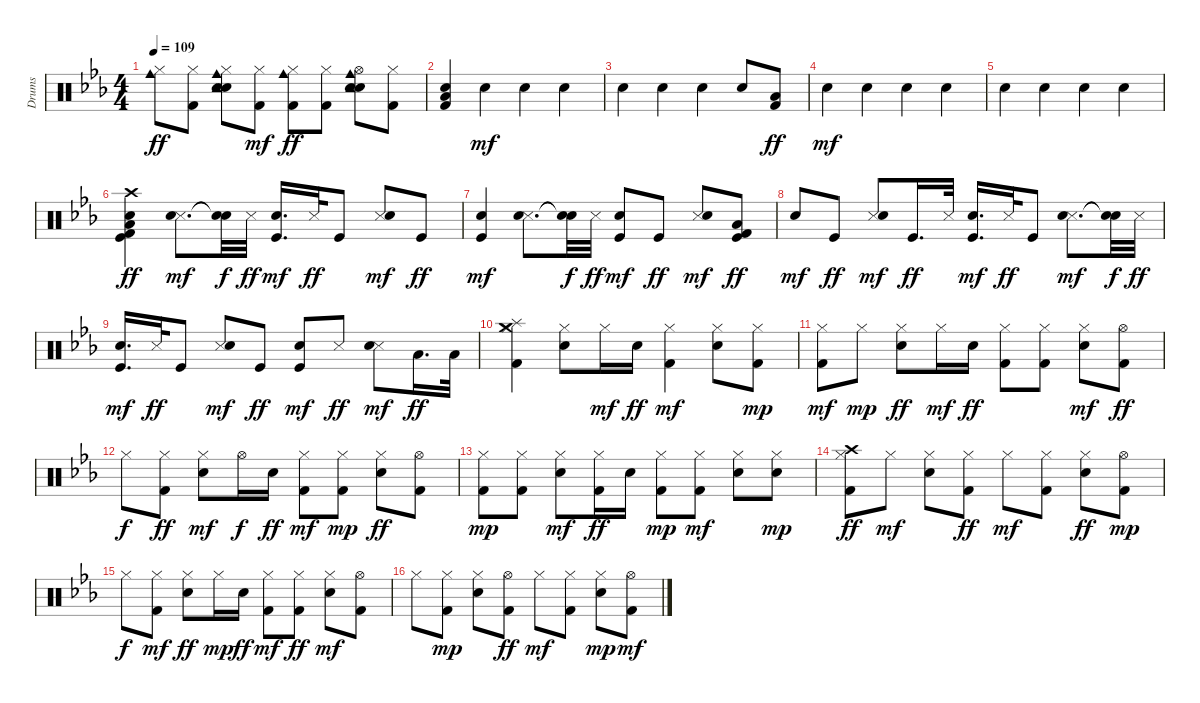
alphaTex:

\track ("Drums" "Drums") {instrument percussion}
\staff {score}
\articulation defaults
\ts (4 4)
\tempo 109
\clef neutral
\ks eb
("Hi-Hat (closed)" "Cowbell medium (hit)").8{dy ff} ("Kick (hit) 2" "Hi-Hat (closed)").8 ("Hand Clap (hit)" "Electric Snare (hit)" "Hi-Hat (closed)" "Tambourine (hit)" "Cowbell medium (hit)").8 ("Kick (hit) 2" "Hi-Hat (closed)").8{dy mf} ("Kick (hit) 2" "Hi-Hat (closed)" "Cowbell medium (hit)").8{dy ff} ("Kick (hit) 2" "Hi-Hat (closed)").8 ("Hand Clap (hit)" "Electric Snare (hit)" "Hi-Hat (open)" "Tambourine (hit)" "Cowbell medium (hit)").8 ("Kick (hit) 2" "Hi-Hat (closed)").8 |
("Kick (hit) 2" "Hand Clap (hit)" "Low Floor Tom (hit)").4 "Hand Clap (hit)".4{dy mf} "Hand Clap (hit)".4 "Hand Clap (hit)".4 |
"Hand Clap (hit)".4 "Hand Clap (hit)".4 "Hand Clap (hit)".4 "Hand Clap (hit)".8 ("Kick (hit) 2" "Low Floor Tom (hit)").8{dy ff} |
"Hand Clap (hit)".4{dy mf} "Hand Clap (hit)".4 "Hand Clap (hit)".4 "Hand Clap (hit)".4 |
"Hand Clap (hit)".4 "Hand Clap (hit)".4 "Hand Clap (hit)".4 "Hand Clap (hit)".4 |
("Kick (hit)" "Kick (hit) 2" "Hand Clap (hit)" "Low Floor Tom (hit)" "Crash high (hit)").4{dy ff} ("Snare (side stick) 3" "Hand Clap (hit)").8{d dy mf} ("Snare (hit)"{t} "Snare (hit)"{t}).32{dy f} "Snare (side stick) 3".32{dy ff} ("Kick (hit)" "Hand Clap (hit)").16{d dy mf} "Snare (side stick) 3".32{dy ff} "Kick (hit)".8 ("Snare (side stick) 3" "Hand Clap (hit)").8{dy mf} "Kick (hit)".8{dy ff} |
("Kick (hit)" "Hand Clap (hit)").4{dy mf} ("Snare (side stick) 3" "Hand Clap (hit)").8{d} ("Snare (hit)"{t} "Snare (hit)"{t}).32{dy f} "Snare (side stick) 3".32{dy ff} ("Kick (hit)" "Hand Clap (hit)").8{dy mf} "Kick (hit)".8{dy ff} ("Snare (side stick) 3" "Hand Clap (hit)").8{dy mf} ("Kick (hit)" "Kick (hit) 2" "Low Floor Tom (hit)").8{dy ff} |
"Hand Clap (hit)".8{dy mf} "Kick (hit)".8{dy ff} ("Snare (side stick) 3" "Hand Clap (hit)").8{dy mf} "Kick (hit)".16{d dy ff} "Snare (side stick) 3".32 ("Kick (hit)" "Hand Clap (hit)").16{d dy mf} "Snare (side stick) 3".32{dy ff} "Kick (hit)".8 ("Snare (side stick) 3" "Hand Clap (hit)").8{d dy mf} ("Snare (hit)"{t} "Snare (hit)"{t}).32{dy f} "Snare (side stick) 3".32{dy ff} |
("Kick (hit)" "Hand Clap (hit)").16{d dy mf} "Snare (side stick) 3".32{dy ff} "Kick (hit)".8 ("Snare (side stick) 3" "Hand Clap (hit)").8{dy mf} "Kick (hit)".8{dy ff} ("Kick (hit)" "Hand Clap (hit)").8{dy mf} "Snare (side stick) 3".8{dy ff} ("Snare (side stick) 3" "Hand Clap (hit)").8{dy mf} "Low Tom (hit)".16{d dy ff} "Low Tom (hit)".32 |
("Kick (hit) 2" "Hi-Hat (closed)" "Splash (hit)" "Crash medium (hit)").4 ("Electric Snare (hit)" "Hi-Hat (closed)").8 "Hi-Hat (closed)".16{dy mf} "Electric Snare (hit)".16{dy ff} ("Kick (hit) 2" "Hi-Hat (closed)").4{dy mf} ("Electric Snare (hit)" "Hi-Hat (closed)").8 ("Kick (hit) 2" "Hi-Hat (closed)").8{dy mp} |
("Kick (hit) 2" "Hi-Hat (closed)").8{dy mf} "Hi-Hat (closed)".8{dy mp} ("Electric Snare (hit)" "Hi-Hat (closed)").8{dy ff} "Hi-Hat (closed)".16{dy mf} "Electric Snare (hit)".16{dy ff} ("Kick (hit) 2" "Hi-Hat (closed)").8 ("Kick (hit) 2" "Hi-Hat (closed)").8 ("Electric Snare (hit)" "Hi-Hat (closed)").8{dy mf} ("Kick (hit) 2" "Hi-Hat (open)").8{dy ff} |
"Hi-Hat (closed)".8{dy f} ("Kick (hit) 2" "Hi-Hat (closed)").8{dy ff} ("Electric Snare (hit)" "Hi-Hat (closed)").8{dy mf} "Hi-Hat (open)".16{dy f} "Electric Snare (hit)".16{dy ff} ("Kick (hit) 2" "Hi-Hat (closed)").8{dy mf} ("Kick (hit) 2" "Hi-Hat (closed)").8{dy mp} ("Electric Snare (hit)" "Hi-Hat (closed)").8{dy ff} ("Kick (hit) 2" "Hi-Hat (open)").8 |
("Kick (hit) 2" "Hi-Hat (closed)").8{dy mp} ("Kick (hit) 2" "Hi-Hat (closed)").8 ("Electric Snare (hit)" "Hi-Hat (closed)").8{dy mf} ("Kick (hit) 2" "Hi-Hat (closed)").16{dy ff} "Electric Snare (hit)".16 ("Kick (hit) 2" "Hi-Hat (closed)").8{dy mp} ("Kick (hit) 2" "Hi-Hat (closed)").8{dy mf} ("Electric Snare (hit)" "Hi-Hat (closed)").8 ("Electric Snare (hit)" "Hi-Hat (closed)").8{dy mp} |
("Kick (hit) 2" "Hi-Hat (closed)" "Crash high (hit)").8{dy ff} "Hi-Hat (closed)".8{dy mf} ("Electric Snare (hit)" "Hi-Hat (closed)").8 ("Kick (hit) 2" "Hi-Hat (closed)").8{dy ff} "Hi-Hat (closed)".8{dy mf} ("Kick (hit) 2" "Hi-Hat (closed)").8 ("Electric Snare (hit)" "Hi-Hat (closed)").8{dy ff} ("Kick (hit) 2" "Hi-Hat (open)").8{dy mp} |
"Hi-Hat (closed)".8{dy f} ("Kick (hit) 2" "Hi-Hat (closed)").8{dy mf} ("Electric Snare (hit)" "Hi-Hat (closed)").8{dy ff} "Hi-Hat (closed)".16{dy mp} "Electric Snare (hit)".16{dy ff} ("Kick (hit) 2" "Hi-Hat (closed)").8{dy mf} ("Kick (hit) 2" "Hi-Hat (closed)").8{dy ff} ("Electric Snare (hit)" "Hi-Hat (closed)").8{dy mf} ("Kick (hit) 2" "Hi-Hat (open)").8 |
"Hi-Hat (closed)".8 ("Kick (hit) 2" "Hi-Hat (closed)").8{dy mp} ("Electric Snare (hit)" "Hi-Hat (closed)").8 ("Kick (hit) 2" "Hi-Hat (open)").8{dy ff} "Hi-Hat (closed)".8{dy mf} ("Kick (hit) 2" "Hi-Hat (closed)").8 ("Electric Snare (hit)" "Hi-Hat (closed)").8{dy mp} ("Kick (hit) 2" "Hi-Hat (open)").8{dy mf}
